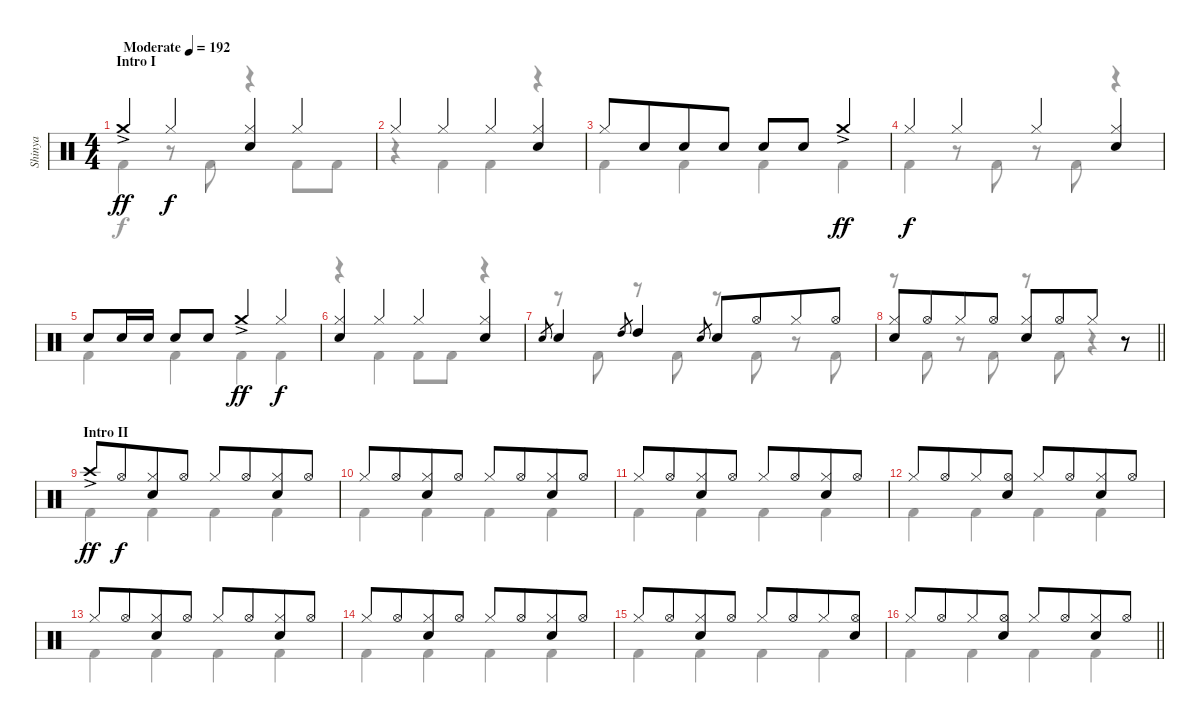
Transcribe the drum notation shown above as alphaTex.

\track ("Shinya" "Shinya") {instrument percussion}
\staff {score}
\articulation defaults
\voice
\ts (4 4)
\section ("" "Intro I")
\tempo (192 "Moderate")
\clef neutral
\ks c "Crash medium (hit)"{ac}.4{dy ff} "Hi-Hat (closed)".4{dy f}
("Hi-Hat (closed)" "Snare (hit) 2").4 "Hi-Hat (closed)".4 |
"Hi-Hat (closed)".4 "Hi-Hat (closed)".4 "Hi-Hat (closed)".4 ("Hi-Hat (closed)" "Snare (hit) 2").4 |
"Hi-Hat (closed)".8 "Snare (hit) 2".8{beam merge} "Snare (hit) 2".8 "Snare (hit) 2".8 "Snare (hit) 2".8 "Snare (hit) 2".8 "Crash medium (hit)"{ac}.4{dy ff} |
"Hi-Hat (closed)".4{dy f} "Hi-Hat (closed)".4 "Hi-Hat (closed)".4 ("Hi-Hat (closed)" "Snare (hit) 2").4 |
"Snare (hit) 2".8 "Snare (hit) 2".16 "Snare (hit) 2".16 "Snare (hit) 2".8 "Snare (hit) 2".8 "Crash medium (hit)"{ac}.4{dy ff} "Hi-Hat (closed)".4{dy f} |
("Hi-Hat (closed)" "Snare (hit) 2").4 "Hi-Hat (closed)".4 "Hi-Hat (closed)".4 ("Hi-Hat (closed)" "Snare (hit) 2").4 |
"Snare (hit) 2".8{gr} "Snare (hit) 2".4 "High Tom (hit)".8{gr} "High Tom (hit)".4 "Snare (hit) 2".8{gr} "Snare (hit) 2".8 "Hi-Hat (open)".8{beam merge} "Hi-Hat (closed)".8 "Hi-Hat (open)".8 |
\barLineRight lightlight
("Hi-Hat (closed)" "Snare (hit) 2").8 "Hi-Hat (open)".8{beam merge} "Hi-Hat (closed)".8 "Hi-Hat (open)".8 ("Hi-Hat (closed)" "Snare (hit) 2").8 "Hi-Hat (open)".8{beam merge} "Hi-Hat (closed)".8 r.8 |
\section ("" "Intro II")
"Crash high (hit)"{ac}.8{dy ff} "Hi-Hat (open)".8{dy f beam merge} ("Hi-Hat (closed)" "Snare (hit) 2").8 "Hi-Hat (open)".8 "Hi-Hat (closed)".8 "Hi-Hat (open)".8{beam merge} ("Hi-Hat (closed)" "Snare (hit) 2").8 "Hi-Hat (open)".8 |
"Hi-Hat (closed)".8 "Hi-Hat (open)".8{beam merge} ("Hi-Hat (closed)" "Snare (hit) 2").8 "Hi-Hat (open)".8 "Hi-Hat (closed)".8 "Hi-Hat (open)".8{beam merge} ("Hi-Hat (closed)" "Snare (hit) 2").8 "Hi-Hat (open)".8 |
"Hi-Hat (closed)".8 "Hi-Hat (open)".8{beam merge} ("Hi-Hat (closed)" "Snare (hit) 2").8 "Hi-Hat (open)".8 "Hi-Hat (closed)".8 "Hi-Hat (open)".8{beam merge} ("Hi-Hat (closed)" "Snare (hit) 2").8 "Hi-Hat (open)".8 |
"Hi-Hat (closed)".8 "Hi-Hat (open)".8{beam merge} "Hi-Hat (closed)".8 ("Hi-Hat (open)" "Snare (hit) 2").8 "Hi-Hat (closed)".8 "Hi-Hat (open)".8{beam merge} ("Hi-Hat (closed)" "Snare (hit) 2").8 "Hi-Hat (open)".8 |
"Hi-Hat (closed)".8 "Hi-Hat (open)".8{beam merge} ("Hi-Hat (closed)" "Snare (hit) 2").8 "Hi-Hat (open)".8 "Hi-Hat (closed)".8 "Hi-Hat (open)".8{beam merge} ("Hi-Hat (closed)" "Snare (hit) 2").8 "Hi-Hat (open)".8 |
"Hi-Hat (closed)".8 "Hi-Hat (open)".8{beam merge} ("Hi-Hat (closed)" "Snare (hit) 2").8 "Hi-Hat (open)".8 "Hi-Hat (closed)".8 "Hi-Hat (open)".8{beam merge} ("Hi-Hat (closed)" "Snare (hit) 2").8 "Hi-Hat (open)".8 |
"Hi-Hat (closed)".8 "Hi-Hat (open)".8{beam merge} ("Hi-Hat (closed)" "Snare (hit) 2").8 "Hi-Hat (open)".8 "Hi-Hat (closed)".8 "Hi-Hat (open)".8{beam merge} "Hi-Hat (closed)".8 ("Hi-Hat (open)" "Snare (hit) 2").8 |
\barLineRight lightlight "Hi-Hat (closed)".8 "Hi-Hat (open)".8{beam merge} "Hi-Hat (closed)".8
("Hi-Hat (open)" "Snare (hit) 2").8 "Hi-Hat (closed)".8 "Hi-Hat (open)".8{beam merge} ("Hi-Hat (closed)" "Snare (hit) 2").8 "Hi-Hat (open)".8
\voice
\clef neutral
\ottava regular
\simile none
\ks c "Kick (hit) 2".4{dy f}
r.8 "Kick (hit) 2".8 r.4 "Kick (hit) 2".8 "Kick (hit) 2".8 |
r.4 "Kick (hit) 2".4 "Kick (hit) 2".4 r.4 |
"Kick (hit) 2".4 "Kick (hit) 2".4 "Kick (hit) 2".4 "Kick (hit) 2".4 |
"Kick (hit) 2".4 r.8 "Kick (hit) 2".8 r.8 "Kick (hit) 2".8 r.4 |
"Kick (hit) 2".4 "Kick (hit) 2".4 "Kick (hit) 2".4 "Kick (hit) 2".4 |
r.4 "Kick (hit) 2".4 "Kick (hit) 2".8 "Kick (hit) 2".8 r.4 |
r.8 "Kick (hit) 2".8 r.8 "Kick (hit) 2".8 r.8 "Kick (hit) 2".8 r.8 "Kick (hit) 2".8 |
\barLineRight lightlight
r.8 "Kick (hit) 2".8 r.8 "Kick (hit) 2".8 r.8 "Kick (hit) 2".8 r.4 |
"Kick (hit) 2".4 "Kick (hit) 2".4 "Kick (hit) 2".4 "Kick (hit) 2".4 |
"Kick (hit) 2".4 "Kick (hit) 2".4 "Kick (hit) 2".4 "Kick (hit) 2".4 |
"Kick (hit) 2".4 "Kick (hit) 2".4 "Kick (hit) 2".4 "Kick (hit) 2".4 |
"Kick (hit) 2".4 "Kick (hit) 2".4 "Kick (hit) 2".4 "Kick (hit) 2".4 |
"Kick (hit) 2".4 "Kick (hit) 2".4 "Kick (hit) 2".4 "Kick (hit) 2".4 |
"Kick (hit) 2".4 "Kick (hit) 2".4 "Kick (hit) 2".4 "Kick (hit) 2".4 |
"Kick (hit) 2".4 "Kick (hit) 2".4 "Kick (hit) 2".4 "Kick (hit) 2".4 |
\barLineRight lightlight "Kick (hit) 2".4 "Kick (hit) 2".4 "Kick (hit) 2".4 "Kick (hit) 2".4
